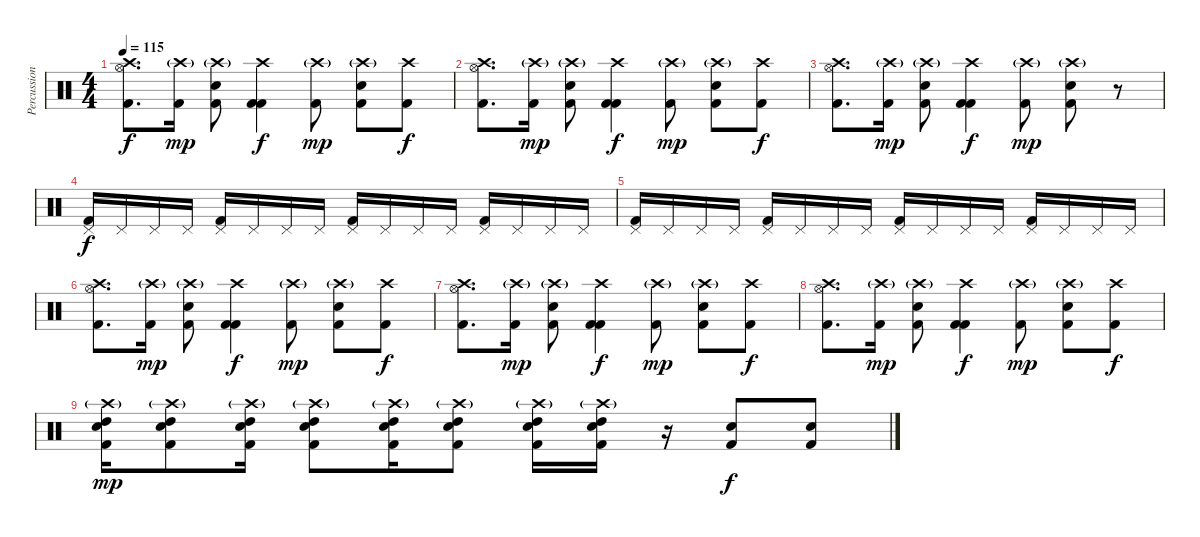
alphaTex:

\track ("Percussion" "Percussion") {instrument percussion}
\staff {score}
\articulation defaults
\ts (4 4)
\tempo 115
\clef neutral
\ks c
("Crash high (hit)" "Hi-Hat (open)" "Kick (hit) 2").8{d dy f} ("Crash high (hit)"{g} "Kick (hit) 2").16{dy mp} ("Crash high (hit)"{g} "Snare (hit) 2" "Kick (hit) 2").8 ("Crash high (hit)" "Kick (hit) 2" "Kick (hit) 2").4{dy f} ("Crash high (hit)"{g} "Kick (hit) 2").8{dy mp} ("Crash high (hit)"{g} "Snare (hit) 2" "Kick (hit) 2").8 ("Crash high (hit)" "Kick (hit) 2").8{dy f} |
("Crash high (hit)" "Hi-Hat (open)" "Kick (hit) 2").8{d} ("Crash high (hit)"{g} "Kick (hit) 2").16{dy mp} ("Crash high (hit)"{g} "Snare (hit) 2" "Kick (hit) 2").8 ("Crash high (hit)" "Kick (hit) 2" "Kick (hit) 2").4{dy f} ("Crash high (hit)"{g} "Kick (hit) 2").8{dy mp} ("Crash high (hit)"{g} "Snare (hit) 2" "Kick (hit) 2").8 ("Crash high (hit)" "Kick (hit) 2").8{dy f} |
("Crash high (hit)" "Hi-Hat (open)" "Kick (hit) 2").8{d} ("Crash high (hit)"{g} "Kick (hit) 2").16{dy mp} ("Crash high (hit)"{g} "Snare (hit) 2" "Kick (hit) 2").8 ("Crash high (hit)" "Kick (hit) 2" "Kick (hit) 2").4{dy f} ("Crash high (hit)"{g} "Kick (hit) 2").8{dy mp} ("Crash high (hit)"{g} "Snare (hit) 2" "Kick (hit) 2").8 r.8 |
("Pedal Hi-Hat (hit)" "Kick (hit) 2").16{dy f} "Pedal Hi-Hat (hit)".16 "Pedal Hi-Hat (hit)".16 "Pedal Hi-Hat (hit)".16 ("Pedal Hi-Hat (hit)" "Kick (hit) 2").16 "Pedal Hi-Hat (hit)".16 "Pedal Hi-Hat (hit)".16 "Pedal Hi-Hat (hit)".16 ("Pedal Hi-Hat (hit)" "Kick (hit) 2").16 "Pedal Hi-Hat (hit)".16 "Pedal Hi-Hat (hit)".16 "Pedal Hi-Hat (hit)".16 ("Pedal Hi-Hat (hit)" "Kick (hit) 2").16 "Pedal Hi-Hat (hit)".16 "Pedal Hi-Hat (hit)".16 "Pedal Hi-Hat (hit)".16 |
("Pedal Hi-Hat (hit)" "Kick (hit) 2").16 "Pedal Hi-Hat (hit)".16 "Pedal Hi-Hat (hit)".16 "Pedal Hi-Hat (hit)".16 ("Pedal Hi-Hat (hit)" "Kick (hit) 2").16 "Pedal Hi-Hat (hit)".16 "Pedal Hi-Hat (hit)".16 "Pedal Hi-Hat (hit)".16 ("Pedal Hi-Hat (hit)" "Kick (hit) 2").16 "Pedal Hi-Hat (hit)".16 "Pedal Hi-Hat (hit)".16 "Pedal Hi-Hat (hit)".16 ("Pedal Hi-Hat (hit)" "Kick (hit) 2").16 "Pedal Hi-Hat (hit)".16 "Pedal Hi-Hat (hit)".16 "Pedal Hi-Hat (hit)".16 |
("Crash high (hit)" "Hi-Hat (open)" "Kick (hit) 2").8{d} ("Crash high (hit)"{g} "Kick (hit) 2").16{dy mp} ("Crash high (hit)"{g} "Snare (hit) 2" "Kick (hit) 2").8 ("Crash high (hit)" "Kick (hit) 2" "Kick (hit) 2").4{dy f} ("Crash high (hit)"{g} "Kick (hit) 2").8{dy mp} ("Crash high (hit)"{g} "Snare (hit) 2" "Kick (hit) 2").8 ("Crash high (hit)" "Kick (hit) 2").8{dy f} |
("Crash high (hit)" "Hi-Hat (open)" "Kick (hit) 2").8{d} ("Crash high (hit)"{g} "Kick (hit) 2").16{dy mp} ("Crash high (hit)"{g} "Snare (hit) 2" "Kick (hit) 2").8 ("Crash high (hit)" "Kick (hit) 2" "Kick (hit) 2").4{dy f} ("Crash high (hit)"{g} "Kick (hit) 2").8{dy mp} ("Crash high (hit)"{g} "Snare (hit) 2" "Kick (hit) 2").8 ("Crash high (hit)" "Kick (hit) 2").8{dy f} |
("Crash high (hit)" "Hi-Hat (open)" "Kick (hit) 2").8{d} ("Crash high (hit)"{g} "Kick (hit) 2").16{dy mp} ("Crash high (hit)"{g} "Snare (hit) 2" "Kick (hit) 2").8 ("Crash high (hit)" "Kick (hit) 2" "Kick (hit) 2").4{dy f} ("Crash high (hit)"{g} "Kick (hit) 2").8{dy mp} ("Crash high (hit)"{g} "Snare (hit) 2" "Kick (hit) 2").8 ("Crash high (hit)" "Kick (hit) 2").8{dy f} |
("Crash high (hit)"{g} "High Tom (hit)" "Snare (hit) 2" "Kick (hit) 2").16{dy mp} ("Crash high (hit)"{g} "High Tom (hit)" "Snare (hit) 2" "Kick (hit) 2").8 ("Crash high (hit)"{g} "High Tom (hit)" "Snare (hit) 2" "Kick (hit) 2").16 ("Crash high (hit)"{g} "High Tom (hit)" "Snare (hit) 2" "Kick (hit) 2").8 ("Crash high (hit)"{g} "High Tom (hit)" "Snare (hit) 2" "Kick (hit) 2").16 ("Crash high (hit)"{g} "High Tom (hit)" "Snare (hit) 2" "Kick (hit) 2").8 ("Crash high (hit)"{g} "High Tom (hit)" "Snare (hit) 2" "Kick (hit) 2").16 ("Crash high (hit)"{g} "High Tom (hit)" "Snare (hit) 2" "Kick (hit) 2").16 r.16 ("Snare (hit) 2" "Kick (hit) 2").8{dy f} ("Snare (hit) 2" "Kick (hit) 2").8
